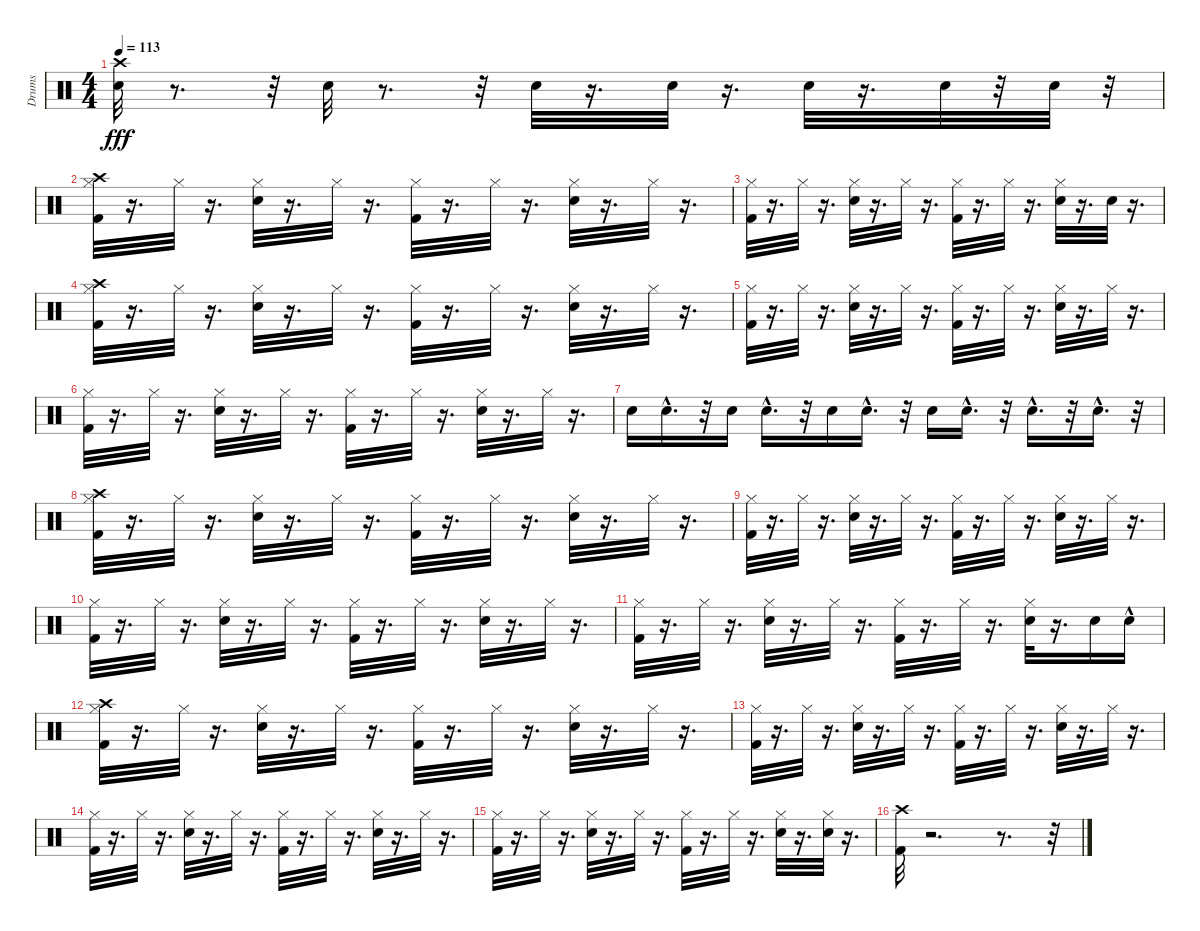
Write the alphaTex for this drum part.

\track ("Drums" "Drums") {instrument percussion}
\staff {score}
\articulation defaults
\ts (4 4)
\tempo 113
\clef neutral
\ks c
("Snare (hit) 2" "Crash high (hit)").32{dy fff} r.8{d} r.32 "Snare (hit) 2".32 r.8{d} r.32 "Snare (hit) 2".32 r.16{d} "Snare (hit) 2".32 r.16{d} "Snare (hit) 2".32 r.16{d} "Snare (hit) 2".32 r.32 "Snare (hit) 2".32 r.32 |
("Kick (hit) 2" "Hi-Hat (closed)" "Crash high (hit)").32 r.16{d} "Hi-Hat (closed)".32 r.16{d} ("Snare (hit) 2" "Hi-Hat (closed)").32 r.16{d} "Hi-Hat (closed)".32 r.16{d} ("Kick (hit) 2" "Hi-Hat (closed)").32 r.16{d} "Hi-Hat (closed)".32 r.16{d} ("Snare (hit) 2" "Hi-Hat (closed)").32 r.16{d} "Hi-Hat (closed)".32 r.16{d} |
("Kick (hit) 2" "Hi-Hat (closed)").32 r.16{d} "Hi-Hat (closed)".32 r.16{d} ("Snare (hit) 2" "Hi-Hat (closed)").32 r.16{d} "Hi-Hat (closed)".32 r.16{d} ("Kick (hit) 2" "Hi-Hat (closed)").32 r.16{d} "Hi-Hat (closed)".32 r.16{d} ("Snare (hit) 2" "Hi-Hat (closed)").32 r.16{d} "Snare (hit) 2".32 r.16{d} |
("Kick (hit) 2" "Hi-Hat (closed)" "Crash high (hit)").32 r.16{d} "Hi-Hat (closed)".32 r.16{d} ("Snare (hit) 2" "Hi-Hat (closed)").32 r.16{d} "Hi-Hat (closed)".32 r.16{d} ("Kick (hit) 2" "Hi-Hat (closed)").32 r.16{d} "Hi-Hat (closed)".32 r.16{d} ("Snare (hit) 2" "Hi-Hat (closed)").32 r.16{d} "Hi-Hat (closed)".32 r.16{d} |
("Kick (hit) 2" "Hi-Hat (closed)").32 r.16{d} "Hi-Hat (closed)".32 r.16{d} ("Snare (hit) 2" "Hi-Hat (closed)").32 r.16{d} "Hi-Hat (closed)".32 r.16{d} ("Kick (hit) 2" "Hi-Hat (closed)").32 r.16{d} "Hi-Hat (closed)".32 r.16{d} ("Snare (hit) 2" "Hi-Hat (closed)").32 r.16{d} "Hi-Hat (closed)".32 r.16{d} |
("Kick (hit) 2" "Hi-Hat (closed)").32 r.16{d} "Hi-Hat (closed)".32 r.16{d} ("Snare (hit) 2" "Hi-Hat (closed)").32 r.16{d} "Hi-Hat (closed)".32 r.16{d} ("Kick (hit) 2" "Hi-Hat (closed)").32 r.16{d} "Hi-Hat (closed)".32 r.16{d} ("Snare (hit) 2" "Hi-Hat (closed)").32 r.16{d} "Hi-Hat (closed)".32 r.16{d} |
"Snare (hit) 2".16 "Snare (hit) 2"{hac}.16{d} r.32 "Snare (hit) 2".16 "Snare (hit) 2"{hac}.16{d} r.32 "Snare (hit) 2".16 "Snare (hit) 2"{hac}.16{d} r.32 "Snare (hit) 2".16 "Snare (hit) 2"{hac}.16{d} r.32 "Snare (hit) 2"{hac}.16{d} r.32 "Snare (hit) 2"{hac}.16{d} r.32 |
("Kick (hit) 2" "Hi-Hat (closed)" "Crash high (hit)").32 r.16{d} "Hi-Hat (closed)".32 r.16{d} ("Snare (hit) 2" "Hi-Hat (closed)").32 r.16{d} "Hi-Hat (closed)".32 r.16{d} ("Kick (hit) 2" "Hi-Hat (closed)").32 r.16{d} "Hi-Hat (closed)".32 r.16{d} ("Snare (hit) 2" "Hi-Hat (closed)").32 r.16{d} "Hi-Hat (closed)".32 r.16{d} |
("Kick (hit) 2" "Hi-Hat (closed)").32 r.16{d} "Hi-Hat (closed)".32 r.16{d} ("Snare (hit) 2" "Hi-Hat (closed)").32 r.16{d} "Hi-Hat (closed)".32 r.16{d} ("Kick (hit) 2" "Hi-Hat (closed)").32 r.16{d} "Hi-Hat (closed)".32 r.16{d} ("Snare (hit) 2" "Hi-Hat (closed)").32 r.16{d} "Hi-Hat (closed)".32 r.16{d} |
("Kick (hit) 2" "Hi-Hat (closed)").32 r.16{d} "Hi-Hat (closed)".32 r.16{d} ("Snare (hit) 2" "Hi-Hat (closed)").32 r.16{d} "Hi-Hat (closed)".32 r.16{d} ("Kick (hit) 2" "Hi-Hat (closed)").32 r.16{d} "Hi-Hat (closed)".32 r.16{d} ("Snare (hit) 2" "Hi-Hat (closed)").32 r.16{d} "Hi-Hat (closed)".32 r.16{d} |
("Kick (hit) 2" "Hi-Hat (closed)").32 r.16{d} "Hi-Hat (closed)".32 r.16{d} ("Snare (hit) 2" "Hi-Hat (closed)").32 r.16{d} "Hi-Hat (closed)".32 r.16{d} ("Kick (hit) 2" "Hi-Hat (closed)").32 r.16{d} "Hi-Hat (closed)".32 r.16{d} ("Snare (hit) 2" "Hi-Hat (closed)").32 r.16{d} "Snare (hit) 2".16 "Snare (hit) 2"{hac}.16 |
("Kick (hit) 2" "Hi-Hat (closed)" "Crash high (hit)").32 r.16{d} "Hi-Hat (closed)".32 r.16{d} ("Snare (hit) 2" "Hi-Hat (closed)").32 r.16{d} "Hi-Hat (closed)".32 r.16{d} ("Kick (hit) 2" "Hi-Hat (closed)").32 r.16{d} "Hi-Hat (closed)".32 r.16{d} ("Snare (hit) 2" "Hi-Hat (closed)").32 r.16{d} "Hi-Hat (closed)".32 r.16{d} |
("Kick (hit) 2" "Hi-Hat (closed)").32 r.16{d} "Hi-Hat (closed)".32 r.16{d} ("Snare (hit) 2" "Hi-Hat (closed)").32 r.16{d} "Hi-Hat (closed)".32 r.16{d} ("Kick (hit) 2" "Hi-Hat (closed)").32 r.16{d} "Hi-Hat (closed)".32 r.16{d} ("Snare (hit) 2" "Hi-Hat (closed)").32 r.16{d} "Hi-Hat (closed)".32 r.16{d} |
("Kick (hit) 2" "Hi-Hat (closed)").32 r.16{d} "Hi-Hat (closed)".32 r.16{d} ("Snare (hit) 2" "Hi-Hat (closed)").32 r.16{d} "Hi-Hat (closed)".32 r.16{d} ("Kick (hit) 2" "Hi-Hat (closed)").32 r.16{d} "Hi-Hat (closed)".32 r.16{d} ("Snare (hit) 2" "Hi-Hat (closed)").32 r.16{d} "Hi-Hat (closed)".32 r.16{d} |
("Kick (hit) 2" "Hi-Hat (closed)").32 r.16{d} "Hi-Hat (closed)".32 r.16{d} ("Snare (hit) 2" "Hi-Hat (closed)").32 r.16{d} "Hi-Hat (closed)".32 r.16{d} ("Kick (hit) 2" "Hi-Hat (closed)").32 r.16{d} "Hi-Hat (closed)".32 r.16{d} ("Snare (hit) 2" "Hi-Hat (closed)").32 r.16{d} ("Snare (hit) 2" "Hi-Hat (closed)").32 r.16{d} |
("Kick (hit) 2" "Crash high (hit)").32 r.2{d} r.8{d} r.32
